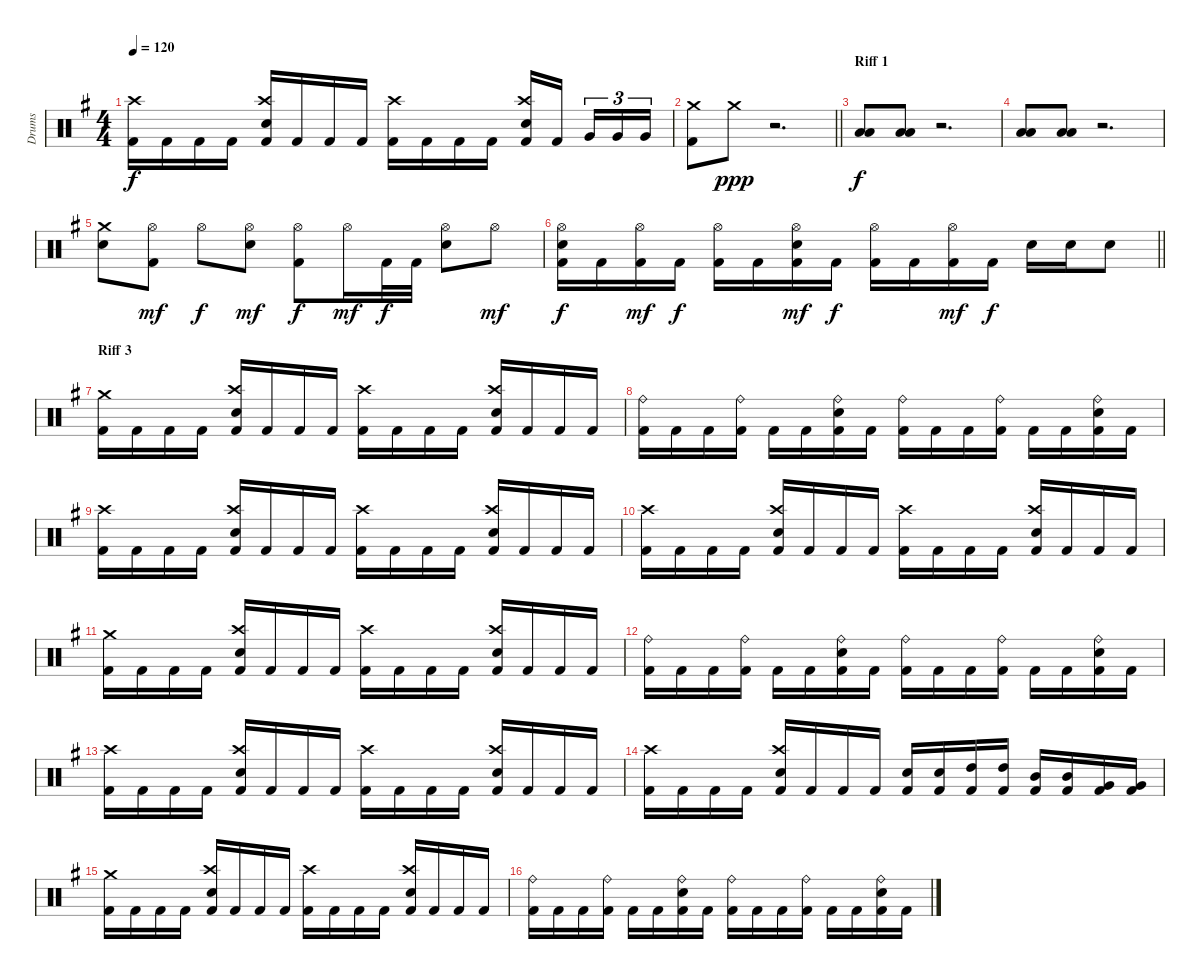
\track ("Drums" "Drums") {instrument percussion}
\staff {score}
\articulation defaults
\ts (4 4)
\tempo 120
\clef neutral
\ks eminor
("Kick (hit) 2" "Crash high (hit)").16{dy f} "Kick (hit) 2".16 "Kick (hit) 2".16 "Kick (hit) 2".16 ("Kick (hit) 2" "Electric Snare (hit)" "Crash high (hit)").16 "Kick (hit) 2".16 "Kick (hit) 2".16 "Kick (hit) 2".16 ("Kick (hit) 2" "Crash high (hit)").16 "Kick (hit) 2".16 "Kick (hit) 2".16 "Kick (hit) 2".16 ("Kick (hit) 2" "Electric Snare (hit)" "Crash high (hit)").16 "Kick (hit) 2".16{beam splitsecondary} "Very Low Tom (hit)".16{tu (3 2)} "Very Low Tom (hit)".16{tu (3 2)} "Very Low Tom (hit)".16{tu (3 2)} |
\barLineRight lightlight
("Crash medium (hit)" "Kick (hit) 2").8 "Crash medium (hit)".8{dy ppp} r.2{d} |
\section ("" "Riff 1")
("Low Tom (hit)" "Low Floor Tom (hit)").8{dy f} ("Low Tom (hit)" "Low Floor Tom (hit)").8 r.2{d} |
("Low Tom (hit)" "Low Floor Tom (hit)").8 ("Low Tom (hit)" "Low Floor Tom (hit)").8 r.2{d} |
("Crash medium (hit)" "Electric Snare (hit)").8 ("Hi-Hat (open)" "Kick (hit) 2").8{dy mf} "Hi-Hat (open)".8{dy f} ("Hi-Hat (open)" "Electric Snare (hit)").8{dy mf} ("Hi-Hat (open)" "Kick (hit) 2").8{dy f} "Hi-Hat (open)".16{dy mf} "Kick (hit) 2".32{dy f} "Kick (hit) 2".32 ("Electric Snare (hit)" "Hi-Hat (open)").8 "Hi-Hat (open)".8{dy mf} |
\barLineRight lightlight
("Hi-Hat (open)" "Kick (hit) 2" "Electric Snare (hit)").16{dy f} "Kick (hit) 2".16 ("Hi-Hat (open)" "Kick (hit) 2").16{dy mf} "Kick (hit) 2".16{dy f} ("Hi-Hat (open)" "Kick (hit) 2").16 "Kick (hit) 2".16 ("Hi-Hat (open)" "Kick (hit) 2" "Electric Snare (hit)").16{dy mf} "Kick (hit) 2".16{dy f} ("Hi-Hat (open)" "Kick (hit) 2").16 "Kick (hit) 2".16 ("Hi-Hat (open)" "Kick (hit) 2").16{dy mf} "Kick (hit) 2".16{dy f} "Electric Snare (hit)".16 "Electric Snare (hit)".16 "Electric Snare (hit)".8 |
\section ("" "Riff 3")
("Kick (hit) 2" "Crash medium (hit)").16 "Kick (hit) 2".16 "Kick (hit) 2".16 "Kick (hit) 2".16 ("Kick (hit) 2" "Electric Snare (hit)" "Crash high (hit)").16 "Kick (hit) 2".16 "Kick (hit) 2".16 "Kick (hit) 2".16 ("Kick (hit) 2" "Crash high (hit)").16 "Kick (hit) 2".16 "Kick (hit) 2".16 "Kick (hit) 2".16 ("Kick (hit) 2" "Crash high (hit)" "Electric Snare (hit)").16 "Kick (hit) 2".16 "Kick (hit) 2".16 "Kick (hit) 2".16 |
("Kick (hit) 2" "Ride (bell)").16 "Kick (hit) 2".16 "Kick (hit) 2".16 ("Kick (hit) 2" "Ride (bell)").16 "Kick (hit) 2".16 "Kick (hit) 2".16 ("Kick (hit) 2" "Electric Snare (hit)" "Ride (bell)").16 "Kick (hit) 2".16 ("Kick (hit) 2" "Ride (bell)").16 "Kick (hit) 2".16 "Kick (hit) 2".16 ("Kick (hit) 2" "Ride (bell)").16 "Kick (hit) 2".16 "Kick (hit) 2".16 ("Kick (hit) 2" "Electric Snare (hit)" "Ride (bell)").16 "Kick (hit) 2".16 |
("Kick (hit) 2" "Crash high (hit)").16 "Kick (hit) 2".16 "Kick (hit) 2".16 "Kick (hit) 2".16 ("Kick (hit) 2" "Electric Snare (hit)" "Crash high (hit)").16 "Kick (hit) 2".16 "Kick (hit) 2".16 "Kick (hit) 2".16 ("Kick (hit) 2" "Crash high (hit)").16 "Kick (hit) 2".16 "Kick (hit) 2".16 "Kick (hit) 2".16 ("Kick (hit) 2" "Crash high (hit)" "Electric Snare (hit)").16 "Kick (hit) 2".16 "Kick (hit) 2".16 "Kick (hit) 2".16 |
("Kick (hit) 2" "Crash high (hit)").16 "Kick (hit) 2".16 "Kick (hit) 2".16 "Kick (hit) 2".16 ("Kick (hit) 2" "Electric Snare (hit)" "Crash high (hit)").16 "Kick (hit) 2".16 "Kick (hit) 2".16 "Kick (hit) 2".16 ("Kick (hit) 2" "Crash high (hit)").16 "Kick (hit) 2".16 "Kick (hit) 2".16 "Kick (hit) 2".16 ("Kick (hit) 2" "Crash high (hit)" "Electric Snare (hit)").16 "Kick (hit) 2".16 "Kick (hit) 2".16 "Kick (hit) 2".16 |
("Kick (hit) 2" "Crash medium (hit)").16 "Kick (hit) 2".16 "Kick (hit) 2".16 "Kick (hit) 2".16 ("Kick (hit) 2" "Electric Snare (hit)" "Crash high (hit)").16 "Kick (hit) 2".16 "Kick (hit) 2".16 "Kick (hit) 2".16 ("Kick (hit) 2" "Crash high (hit)").16 "Kick (hit) 2".16 "Kick (hit) 2".16 "Kick (hit) 2".16 ("Kick (hit) 2" "Crash high (hit)" "Electric Snare (hit)").16 "Kick (hit) 2".16 "Kick (hit) 2".16 "Kick (hit) 2".16 |
("Kick (hit) 2" "Ride (bell)").16 "Kick (hit) 2".16 "Kick (hit) 2".16 ("Kick (hit) 2" "Ride (bell)").16 "Kick (hit) 2".16 "Kick (hit) 2".16 ("Kick (hit) 2" "Electric Snare (hit)" "Ride (bell)").16 "Kick (hit) 2".16 ("Kick (hit) 2" "Ride (bell)").16 "Kick (hit) 2".16 "Kick (hit) 2".16 ("Kick (hit) 2" "Ride (bell)").16 "Kick (hit) 2".16 "Kick (hit) 2".16 ("Kick (hit) 2" "Electric Snare (hit)" "Ride (bell)").16 "Kick (hit) 2".16 |
("Kick (hit) 2" "Crash high (hit)").16 "Kick (hit) 2".16 "Kick (hit) 2".16 "Kick (hit) 2".16 ("Kick (hit) 2" "Electric Snare (hit)" "Crash high (hit)").16 "Kick (hit) 2".16 "Kick (hit) 2".16 "Kick (hit) 2".16 ("Kick (hit) 2" "Crash high (hit)").16 "Kick (hit) 2".16 "Kick (hit) 2".16 "Kick (hit) 2".16 ("Kick (hit) 2" "Crash high (hit)" "Electric Snare (hit)").16 "Kick (hit) 2".16 "Kick (hit) 2".16 "Kick (hit) 2".16 |
("Kick (hit) 2" "Crash high (hit)").16 "Kick (hit) 2".16 "Kick (hit) 2".16 "Kick (hit) 2".16 ("Kick (hit) 2" "Electric Snare (hit)" "Crash high (hit)").16 "Kick (hit) 2".16 "Kick (hit) 2".16 "Kick (hit) 2".16 ("Kick (hit) 2" "Electric Snare (hit)").16 ("Kick (hit) 2" "Electric Snare (hit)").16 ("Kick (hit) 2" "High Tom (hit)").16 ("Kick (hit) 2" "High Tom (hit)").16 ("Kick (hit) 2" "Mid Tom (hit)").16 ("Kick (hit) 2" "Mid Tom (hit)").16 ("Kick (hit) 2" "Very Low Tom (hit)").16 ("Kick (hit) 2" "Very Low Tom (hit)").16 |
("Kick (hit) 2" "Crash medium (hit)").16 "Kick (hit) 2".16 "Kick (hit) 2".16 "Kick (hit) 2".16 ("Kick (hit) 2" "Electric Snare (hit)" "Crash high (hit)").16 "Kick (hit) 2".16 "Kick (hit) 2".16 "Kick (hit) 2".16 ("Kick (hit) 2" "Crash high (hit)").16 "Kick (hit) 2".16 "Kick (hit) 2".16 "Kick (hit) 2".16 ("Kick (hit) 2" "Crash high (hit)" "Electric Snare (hit)").16 "Kick (hit) 2".16 "Kick (hit) 2".16 "Kick (hit) 2".16 |
("Kick (hit) 2" "Ride (bell)").16 "Kick (hit) 2".16 "Kick (hit) 2".16 ("Kick (hit) 2" "Ride (bell)").16 "Kick (hit) 2".16 "Kick (hit) 2".16 ("Kick (hit) 2" "Electric Snare (hit)" "Ride (bell)").16 "Kick (hit) 2".16 ("Kick (hit) 2" "Ride (bell)").16 "Kick (hit) 2".16 "Kick (hit) 2".16 ("Kick (hit) 2" "Ride (bell)").16 "Kick (hit) 2".16 "Kick (hit) 2".16 ("Kick (hit) 2" "Electric Snare (hit)" "Ride (bell)").16 "Kick (hit) 2".16
